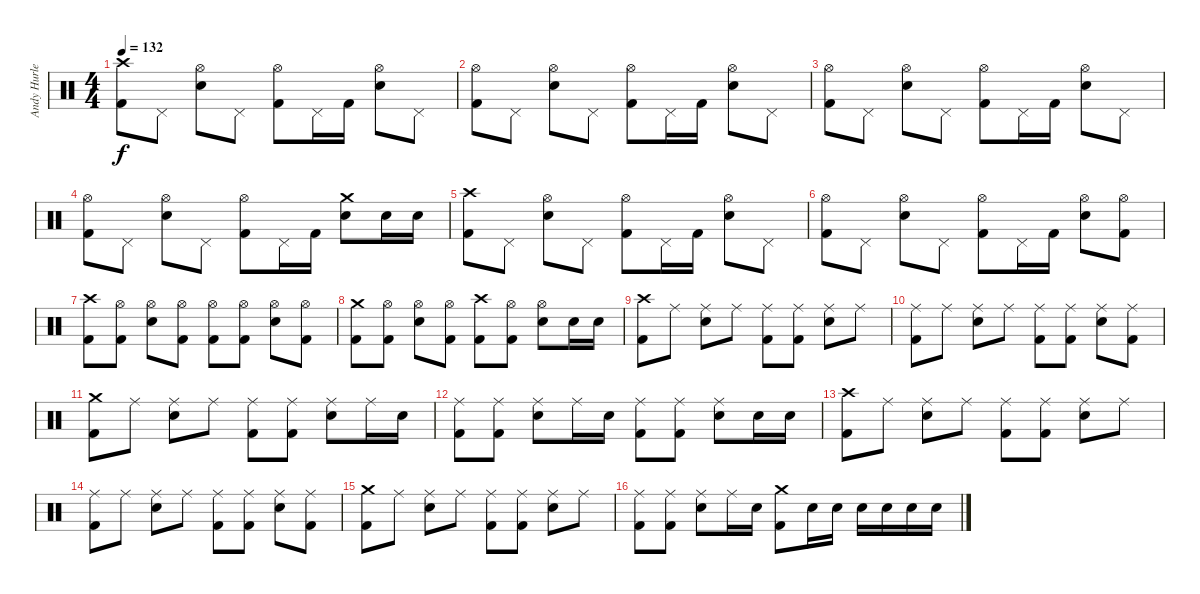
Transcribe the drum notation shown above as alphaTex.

\track ("Andy Hurley" "Andy Hurle") {instrument percussion}
\staff {score}
\articulation defaults
\ts (4 4)
\tempo 132
\clef neutral
\ks c
("Crash high (hit)" "Kick (hit) 2").8{dy f} "Pedal Hi-Hat (hit)".8 ("Hi-Hat (open)" "Snare (hit) 2").8 "Pedal Hi-Hat (hit)".8 ("Hi-Hat (open)" "Kick (hit) 2").8 "Pedal Hi-Hat (hit)".16 "Kick (hit) 2".16 ("Hi-Hat (open)" "Snare (hit) 2").8 "Pedal Hi-Hat (hit)".8 |
("Hi-Hat (open)" "Kick (hit) 2").8 "Pedal Hi-Hat (hit)".8 ("Hi-Hat (open)" "Snare (hit) 2").8 "Pedal Hi-Hat (hit)".8 ("Hi-Hat (open)" "Kick (hit) 2").8 "Pedal Hi-Hat (hit)".16 "Kick (hit) 2".16 ("Hi-Hat (open)" "Snare (hit) 2").8 "Pedal Hi-Hat (hit)".8 |
("Hi-Hat (open)" "Kick (hit) 2").8 "Pedal Hi-Hat (hit)".8 ("Hi-Hat (open)" "Snare (hit) 2").8 "Pedal Hi-Hat (hit)".8 ("Hi-Hat (open)" "Kick (hit) 2").8 "Pedal Hi-Hat (hit)".16 "Kick (hit) 2".16 ("Hi-Hat (open)" "Snare (hit) 2").8 "Pedal Hi-Hat (hit)".8 |
("Hi-Hat (open)" "Kick (hit) 2").8 "Pedal Hi-Hat (hit)".8 ("Hi-Hat (open)" "Snare (hit) 2").8 "Pedal Hi-Hat (hit)".8 ("Hi-Hat (open)" "Kick (hit) 2").8 "Pedal Hi-Hat (hit)".16 "Kick (hit) 2".16 ("Crash medium (hit)" "Snare (hit) 2").8 "Snare (hit) 2".16 "Snare (hit) 2".16 |
("Crash high (hit)" "Kick (hit) 2").8 "Pedal Hi-Hat (hit)".8 ("Hi-Hat (open)" "Snare (hit) 2").8 "Pedal Hi-Hat (hit)".8 ("Hi-Hat (open)" "Kick (hit) 2").8 "Pedal Hi-Hat (hit)".16 "Kick (hit) 2".16 ("Hi-Hat (open)" "Snare (hit) 2").8 "Pedal Hi-Hat (hit)".8 |
("Hi-Hat (open)" "Kick (hit) 2").8 "Pedal Hi-Hat (hit)".8 ("Hi-Hat (open)" "Snare (hit) 2").8 "Pedal Hi-Hat (hit)".8 ("Hi-Hat (open)" "Kick (hit) 2").8 "Pedal Hi-Hat (hit)".16 "Kick (hit) 2".16 ("Hi-Hat (open)" "Snare (hit) 2").8 ("Hi-Hat (open)" "Kick (hit) 2").8 |
("Crash high (hit)" "Kick (hit) 2").8 ("Hi-Hat (open)" "Kick (hit) 2").8 ("Hi-Hat (open)" "Snare (hit) 2").8 ("Hi-Hat (open)" "Kick (hit) 2").8 ("Hi-Hat (open)" "Kick (hit) 2").8 ("Hi-Hat (open)" "Kick (hit) 2").8 ("Hi-Hat (open)" "Snare (hit) 2").8 ("Hi-Hat (open)" "Kick (hit) 2").8 |
("Crash medium (hit)" "Kick (hit) 2").8 ("Hi-Hat (open)" "Kick (hit) 2").8 ("Hi-Hat (open)" "Snare (hit) 2").8 ("Hi-Hat (open)" "Kick (hit) 2").8 ("Crash high (hit)" "Kick (hit) 2").8 ("Hi-Hat (open)" "Kick (hit) 2").8 ("Hi-Hat (open)" "Snare (hit) 2").8 "Snare (hit) 2".16 "Snare (hit) 2".16 |
("Crash high (hit)" "Kick (hit) 2").8 "Ride (middle)".8 ("Ride (middle)" "Snare (hit) 2").8 "Ride (middle)".8 ("Ride (middle)" "Kick (hit) 2").8 ("Ride (middle)" "Kick (hit) 2").8 ("Ride (middle)" "Snare (hit) 2").8 "Ride (middle)".8 |
("Ride (middle)" "Kick (hit) 2").8 "Ride (middle)".8 ("Ride (middle)" "Snare (hit) 2").8 "Ride (middle)".8 ("Ride (middle)" "Kick (hit) 2").8 ("Ride (middle)" "Kick (hit) 2").8 ("Ride (middle)" "Snare (hit) 2").8 ("Ride (middle)" "Kick (hit) 2").8 |
("Crash medium (hit)" "Kick (hit) 2").8 "Ride (middle)".8 ("Ride (middle)" "Snare (hit) 2").8 "Ride (middle)".8 ("Ride (middle)" "Kick (hit) 2").8 ("Ride (middle)" "Kick (hit) 2").8 ("Ride (middle)" "Snare (hit) 2").8 "Ride (middle)".16 "Snare (hit) 2".16 |
("Ride (middle)" "Kick (hit) 2").8 ("Ride (middle)" "Kick (hit) 2").8 ("Ride (middle)" "Snare (hit) 2").8 "Ride (middle)".16 "Snare (hit) 2".16 ("Ride (middle)" "Kick (hit) 2").8 ("Ride (middle)" "Kick (hit) 2").8 ("Ride (middle)" "Snare (hit) 2").8 "Snare (hit) 2".16 "Snare (hit) 2".16 |
("Crash high (hit)" "Kick (hit) 2").8 "Ride (middle)".8 ("Ride (middle)" "Snare (hit) 2").8 "Ride (middle)".8 ("Ride (middle)" "Kick (hit) 2").8 ("Ride (middle)" "Kick (hit) 2").8 ("Ride (middle)" "Snare (hit) 2").8 "Ride (middle)".8 |
("Ride (middle)" "Kick (hit) 2").8 "Ride (middle)".8 ("Ride (middle)" "Snare (hit) 2").8 "Ride (middle)".8 ("Ride (middle)" "Kick (hit) 2").8 ("Ride (middle)" "Kick (hit) 2").8 ("Ride (middle)" "Snare (hit) 2").8 ("Ride (middle)" "Kick (hit) 2").8 |
("Crash medium (hit)" "Kick (hit) 2").8 "Ride (middle)".8 ("Ride (middle)" "Snare (hit) 2").8 "Ride (middle)".8 ("Ride (middle)" "Kick (hit) 2").8 ("Ride (middle)" "Kick (hit) 2").8 ("Ride (middle)" "Snare (hit) 2").8 "Ride (middle)".8 |
("Ride (middle)" "Kick (hit) 2").8 ("Ride (middle)" "Kick (hit) 2").8 ("Ride (middle)" "Snare (hit) 2").8 "Ride (middle)".16 "Snare (hit) 2".16 ("Crash medium (hit)" "Kick (hit) 2").8 "Snare (hit) 2".16 "Snare (hit) 2".16 "Snare (hit) 2".16 "Snare (hit) 2".16 "Snare (hit) 2".16 "Snare (hit) 2".16
